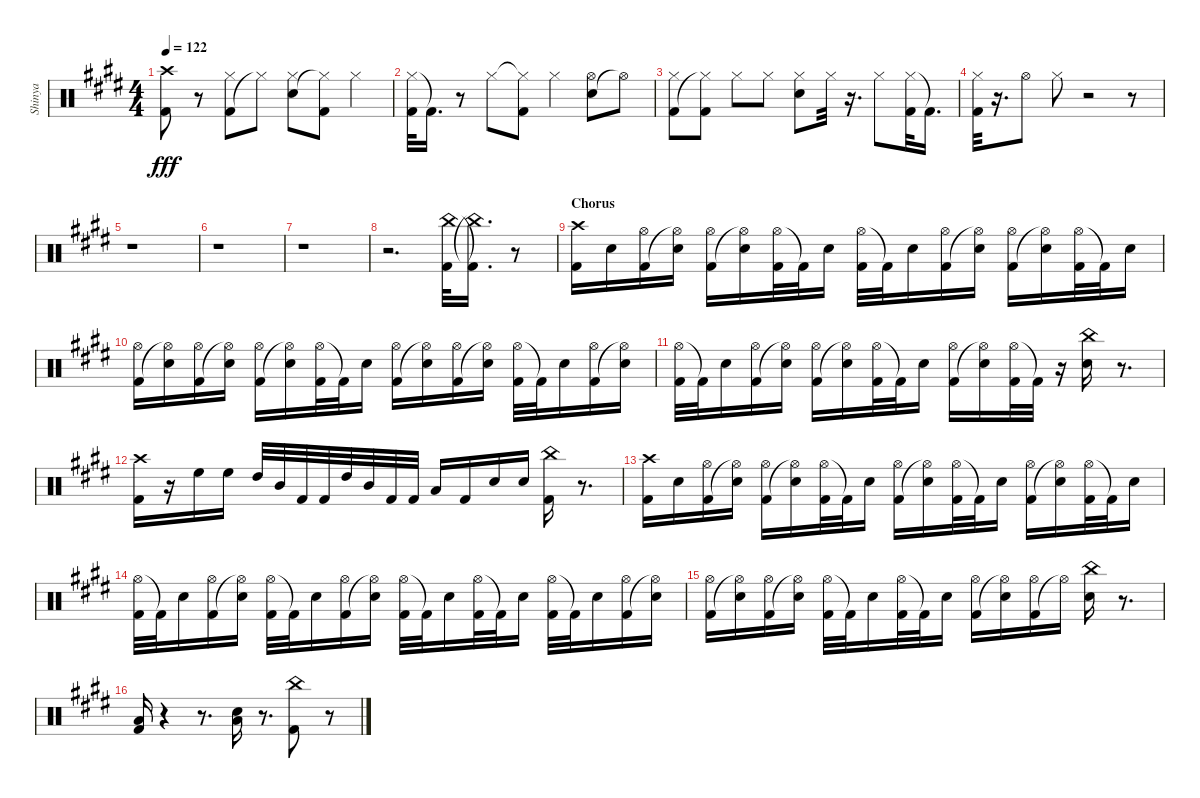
\track ("Shinya" "Shinya") {instrument percussion}
\staff {score}
\articulation defaults
\ts (4 4)
\tempo 122
\clef neutral
\ks c#minor
("Kick (hit) 2" "Crash high (hit)").8{dy fff} r.8 ("Kick (hit) 2" "Hi-Hat (closed)").8 "Hi-Hat (closed)"{t}.8 ("Snare (hit) 2" "Hi-Hat (closed)").8 ("Hi-Hat (closed)"{t} "Kick (hit) 2").8 "Hi-Hat (closed)".4 |
("Hi-Hat (closed)" "Kick (hit) 2").32 "Kick (hit) 2"{t}.16{d} r.8 "Hi-Hat (closed)".8 ("Hi-Hat (closed)"{t} "Kick (hit) 2").8 "Hi-Hat (closed)".4 ("Snare (hit) 2" "Hi-Hat (open)").8 "Hi-Hat (open)"{t}.8 |
("Kick (hit) 2" "Hi-Hat (closed)").8 ("Hi-Hat (closed)"{t} "Kick (hit) 2").8 "Hi-Hat (closed)".8 "Hi-Hat (closed)".8 ("Snare (hit) 2" "Hi-Hat (closed)").8 "Hi-Hat (closed)".32 r.16{d} "Hi-Hat (closed)".8 ("Hi-Hat (closed)" "Kick (hit) 2").32 "Kick (hit) 2"{t}.16{d} |
("Kick (hit) 2" "Hi-Hat (closed)").32 r.16{d} "Hi-Hat (open)".8 "Hi-Hat (closed)".8 r.2 r.8 |
r.1 |
r.1 |
r.1 |
r.2{d} ("China (hit)" "Kick (hit) 2").32 ("Kick (hit) 2"{t} "China (hit)"{t}).16{d} r.8 |
\section ("" "Chorus")
("Kick (hit) 2" "Crash high (hit)").16 "Snare (hit) 2".16 ("Kick (hit) 2" "Hi-Hat (open)").16 ("Hi-Hat (open)"{t} "Snare (hit) 2").16 ("Kick (hit) 2" "Hi-Hat (open)").16 ("Hi-Hat (open)"{t} "Snare (hit) 2").16 ("Hi-Hat (open)" "Kick (hit) 2").32 "Kick (hit) 2"{t}.32 "Snare (hit) 2".16 ("Hi-Hat (open)" "Kick (hit) 2").32 "Kick (hit) 2"{t}.32 "Snare (hit) 2".16 ("Kick (hit) 2" "Hi-Hat (open)").16 ("Hi-Hat (open)"{t} "Snare (hit) 2").16 ("Kick (hit) 2" "Hi-Hat (open)").16 ("Hi-Hat (open)"{t} "Snare (hit) 2").16 ("Hi-Hat (open)" "Kick (hit) 2").32 "Kick (hit) 2"{t}.32 "Snare (hit) 2".16 |
("Kick (hit) 2" "Hi-Hat (open)").16 ("Hi-Hat (open)"{t} "Snare (hit) 2").16 ("Kick (hit) 2" "Hi-Hat (open)").16 ("Hi-Hat (open)"{t} "Snare (hit) 2").16 ("Kick (hit) 2" "Hi-Hat (open)").16 ("Hi-Hat (open)"{t} "Snare (hit) 2").16 ("Hi-Hat (open)" "Kick (hit) 2").32 "Kick (hit) 2"{t}.32 "Snare (hit) 2".16 ("Kick (hit) 2" "Hi-Hat (open)").16 ("Hi-Hat (open)"{t} "Snare (hit) 2").16 ("Kick (hit) 2" "Hi-Hat (open)").16 ("Hi-Hat (open)"{t} "Snare (hit) 2").16 ("Hi-Hat (open)" "Kick (hit) 2").32 "Kick (hit) 2"{t}.32 "Snare (hit) 2".16 ("Kick (hit) 2" "Hi-Hat (open)").16 ("Hi-Hat (open)"{t} "Snare (hit) 2").16 |
("Hi-Hat (open)" "Kick (hit) 2").32 "Kick (hit) 2"{t}.32 "Snare (hit) 2".16 ("Kick (hit) 2" "Hi-Hat (open)").16 ("Hi-Hat (open)"{t} "Snare (hit) 2").16 ("Kick (hit) 2" "Hi-Hat (open)").16 ("Hi-Hat (open)"{t} "Snare (hit) 2").16 ("Hi-Hat (open)" "Kick (hit) 2").32 "Kick (hit) 2"{t}.32 "Snare (hit) 2".16 ("Kick (hit) 2" "Hi-Hat (open)").16 ("Hi-Hat (open)"{t} "Snare (hit) 2").16 ("Hi-Hat (open)" "Kick (hit) 2").32 "Kick (hit) 2"{t}.32 r.16 ("Snare (hit) 2" "China (hit)").16 r.8{d} |
("Kick (hit) 2" "Crash high (hit)").16 r.16 "High Floor Tom (hit)".16 "High Floor Tom (hit)".16 "High Tom (hit)".32 "Mid Tom (hit)".32 "Kick (hit) 2".32 "Kick (hit) 2".32 "High Tom (hit)".32 "Mid Tom (hit)".32 "Kick (hit) 2".32 "Kick (hit) 2".32 "Low Tom (hit)".16 "Kick (hit) 2".16 "Snare (hit) 2".16 "Snare (hit) 2".16 ("Kick (hit) 2" "China (hit)").16 r.8{d} |
("Kick (hit) 2" "Crash high (hit)").16 "Snare (hit) 2".16 ("Kick (hit) 2" "Hi-Hat (open)").16 ("Hi-Hat (open)"{t} "Snare (hit) 2").16 ("Kick (hit) 2" "Hi-Hat (open)").16 ("Hi-Hat (open)"{t} "Snare (hit) 2").16 ("Hi-Hat (open)" "Kick (hit) 2").32 "Kick (hit) 2"{t}.32 "Snare (hit) 2".16 ("Kick (hit) 2" "Hi-Hat (open)").16 ("Hi-Hat (open)"{t} "Snare (hit) 2").16 ("Hi-Hat (open)" "Kick (hit) 2").32 "Kick (hit) 2"{t}.32 "Snare (hit) 2".16 ("Kick (hit) 2" "Hi-Hat (open)").16 ("Hi-Hat (open)"{t} "Snare (hit) 2").16 ("Hi-Hat (open)" "Kick (hit) 2").32 "Kick (hit) 2"{t}.32 "Snare (hit) 2".16 |
("Hi-Hat (open)" "Kick (hit) 2").32 "Kick (hit) 2"{t}.32 "Snare (hit) 2".16 ("Kick (hit) 2" "Hi-Hat (open)").16 ("Hi-Hat (open)"{t} "Snare (hit) 2").16 ("Hi-Hat (open)" "Kick (hit) 2").32 "Kick (hit) 2"{t}.32 "Snare (hit) 2".16 ("Kick (hit) 2" "Hi-Hat (open)").16 ("Hi-Hat (open)"{t} "Snare (hit) 2").16 ("Hi-Hat (open)" "Kick (hit) 2").32 "Kick (hit) 2"{t}.32 "Snare (hit) 2".16 ("Hi-Hat (open)" "Kick (hit) 2").32 "Kick (hit) 2"{t}.32 "Snare (hit) 2".16 ("Hi-Hat (open)" "Kick (hit) 2").32 "Kick (hit) 2"{t}.32 "Snare (hit) 2".16 ("Kick (hit) 2" "Hi-Hat (open)").16 ("Hi-Hat (open)"{t} "Snare (hit) 2").16 |
("Kick (hit) 2" "Hi-Hat (open)").16 ("Hi-Hat (open)"{t} "Snare (hit) 2").16 ("Kick (hit) 2" "Hi-Hat (open)").16 ("Hi-Hat (open)"{t} "Snare (hit) 2").16 ("Hi-Hat (open)" "Kick (hit) 2").32 "Kick (hit) 2"{t}.32 "Snare (hit) 2".16 ("Hi-Hat (open)" "Kick (hit) 2").32 "Kick (hit) 2"{t}.32 "Snare (hit) 2".16 ("Kick (hit) 2" "Hi-Hat (open)").16 ("Hi-Hat (open)"{t} "Snare (hit) 2").16 ("Kick (hit) 2" "Hi-Hat (open)").16 "Hi-Hat (open)"{t}.16 ("Snare (hit) 2" "China (hit)").16 r.8{d} |
("Kick (hit) 2" "Low Tom (hit)").16 r.4 r.8{d} ("Snare (hit) 2" "Low Tom (hit)").16 r.8{d} ("Kick (hit) 2" "China (hit)").8 r.8
